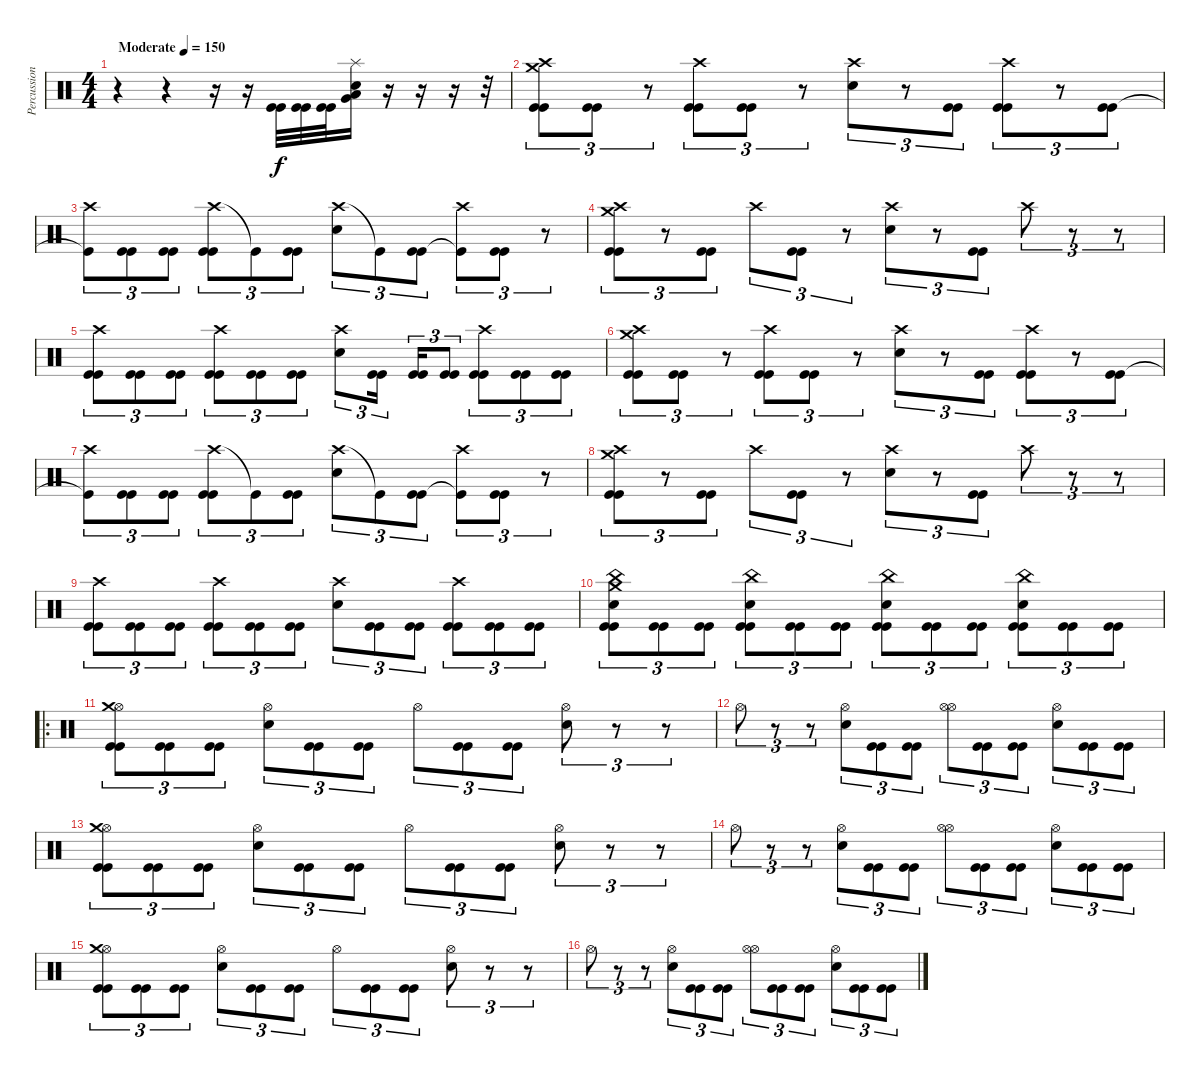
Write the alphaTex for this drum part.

\track ("Percussion" "Percussion") {instrument percussion}
\staff {score}
\articulation defaults
\ts (4 4)
\tempo (150 "Moderate")
\clef neutral
\ks c
r.4{dy f} r.4 r.16 r.16 ("Kick (hit)" "Kick (hit)").32 ("Kick (hit)" "Kick (hit)").32 ("Kick (hit)" "Kick (hit)").32 ("Very Low Tom (hit)" "Low Floor Tom (hit)" "Snare (hit) 2" "Splash (hit)").16 r.16 r.16 r.16 r.32 |
("Kick (hit)" "Kick (hit)" "Crash high (hit)" "Crash medium (hit)").8{tu (3 2)} ("Kick (hit)" "Kick (hit)").8{tu (3 2)} r.8{tu (3 2)} ("Kick (hit)" "Kick (hit)" "Crash high (hit)").8{tu (3 2)} ("Kick (hit)" "Kick (hit)").8{tu (3 2)} r.8{tu (3 2)} ("Snare (hit) 2" "Crash high (hit)").8{tu (3 2)} r.8{tu (3 2)} ("Kick (hit)" "Kick (hit)").8{tu (3 2)} ("Kick (hit)" "Kick (hit)" "Crash high (hit)").8{tu (3 2)} r.8{tu (3 2)} ("Kick (hit)" "Kick (hit)").8{tu (3 2)} |
("Crash high (hit)" "Kick (hit)"{t}).8{tu (3 2)} ("Kick (hit)" "Kick (hit)").8{tu (3 2)} ("Kick (hit)" "Kick (hit)").8{tu (3 2)} ("Crash high (hit)" "Kick (hit)" "Kick (hit)").8{tu (3 2)} "Kick (hit)"{t}.8{tu (3 2)} ("Kick (hit)" "Kick (hit)").8{tu (3 2)} ("Crash high (hit)" "Snare (hit) 2").8{tu (3 2)} "Kick (hit)"{t}.8{tu (3 2)} ("Kick (hit)" "Kick (hit)").8{tu (3 2)} ("Crash high (hit)" "Kick (hit)"{t}).8{tu (3 2)} ("Kick (hit)" "Kick (hit)").8{tu (3 2)} r.8{tu (3 2)} |
("Crash high (hit)" "Kick (hit)" "Crash medium (hit)" "Kick (hit)").8{tu (3 2)} r.8{tu (3 2)} ("Kick (hit)" "Kick (hit)").8{tu (3 2)} "Crash high (hit)".8{tu (3 2)} ("Kick (hit)" "Kick (hit)").8{tu (3 2)} r.8{tu (3 2)} ("Crash high (hit)" "Snare (hit) 2").8{tu (3 2)} r.8{tu (3 2)} ("Kick (hit)" "Kick (hit)").8{tu (3 2)} "Crash high (hit)".8{tu (3 2)} r.8{tu (3 2)} r.8{tu (3 2)} |
("Crash high (hit)" "Kick (hit)" "Kick (hit)").8{tu (3 2)} ("Kick (hit)" "Kick (hit)").8{tu (3 2)} ("Kick (hit)" "Kick (hit)").8{tu (3 2)} ("Crash high (hit)" "Kick (hit)" "Kick (hit)").8{tu (3 2)} ("Kick (hit)" "Kick (hit)").8{tu (3 2)} ("Kick (hit)" "Kick (hit)").8{tu (3 2)} ("Crash high (hit)" "Snare (hit) 2").8{tu (3 2)} ("Kick (hit)" "Kick (hit)").16{tu (3 2) beam splitsecondary} ("Kick (hit)" "Kick (hit)").16{tu (3 2)} ("Kick (hit)" "Kick (hit)").8{tu (3 2)} ("Crash high (hit)" "Kick (hit)" "Kick (hit)").8{tu (3 2)} ("Kick (hit)" "Kick (hit)").8{tu (3 2)} ("Kick (hit)" "Kick (hit)").8{tu (3 2)} |
("Kick (hit)" "Kick (hit)" "Crash high (hit)" "Crash medium (hit)").8{tu (3 2)} ("Kick (hit)" "Kick (hit)").8{tu (3 2)} r.8{tu (3 2)} ("Kick (hit)" "Kick (hit)" "Crash high (hit)").8{tu (3 2)} ("Kick (hit)" "Kick (hit)").8{tu (3 2)} r.8{tu (3 2)} ("Snare (hit) 2" "Crash high (hit)").8{tu (3 2)} r.8{tu (3 2)} ("Kick (hit)" "Kick (hit)").8{tu (3 2)} ("Kick (hit)" "Kick (hit)" "Crash high (hit)").8{tu (3 2)} r.8{tu (3 2)} ("Kick (hit)" "Kick (hit)").8{tu (3 2)} |
("Crash high (hit)" "Kick (hit)"{t}).8{tu (3 2)} ("Kick (hit)" "Kick (hit)").8{tu (3 2)} ("Kick (hit)" "Kick (hit)").8{tu (3 2)} ("Crash high (hit)" "Kick (hit)" "Kick (hit)").8{tu (3 2)} "Kick (hit)"{t}.8{tu (3 2)} ("Kick (hit)" "Kick (hit)").8{tu (3 2)} ("Crash high (hit)" "Snare (hit) 2").8{tu (3 2)} "Kick (hit)"{t}.8{tu (3 2)} ("Kick (hit)" "Kick (hit)").8{tu (3 2)} ("Crash high (hit)" "Kick (hit)"{t}).8{tu (3 2)} ("Kick (hit)" "Kick (hit)").8{tu (3 2)} r.8{tu (3 2)} |
("Crash high (hit)" "Kick (hit)" "Crash medium (hit)" "Kick (hit)").8{tu (3 2)} r.8{tu (3 2)} ("Kick (hit)" "Kick (hit)").8{tu (3 2)} "Crash high (hit)".8{tu (3 2)} ("Kick (hit)" "Kick (hit)").8{tu (3 2)} r.8{tu (3 2)} ("Crash high (hit)" "Snare (hit) 2").8{tu (3 2)} r.8{tu (3 2)} ("Kick (hit)" "Kick (hit)").8{tu (3 2)} "Crash high (hit)".8{tu (3 2)} r.8{tu (3 2)} r.8{tu (3 2)} |
("Crash high (hit)" "Kick (hit)" "Kick (hit)").8{tu (3 2)} ("Kick (hit)" "Kick (hit)").8{tu (3 2)} ("Kick (hit)" "Kick (hit)").8{tu (3 2)} ("Crash high (hit)" "Kick (hit)" "Kick (hit)").8{tu (3 2)} ("Kick (hit)" "Kick (hit)").8{tu (3 2)} ("Kick (hit)" "Kick (hit)").8{tu (3 2)} ("Crash high (hit)" "Snare (hit) 2").8{tu (3 2)} ("Kick (hit)" "Kick (hit)").8{tu (3 2)} ("Kick (hit)" "Kick (hit)").8{tu (3 2)} ("Crash high (hit)" "Kick (hit)" "Kick (hit)").8{tu (3 2)} ("Kick (hit)" "Kick (hit)").8{tu (3 2)} ("Kick (hit)" "Kick (hit)").8{tu (3 2)} |
("Kick (hit)" "Crash medium (hit)" "China (hit)" "Snare (hit) 2" "Kick (hit)").8{tu (3 2)} ("Kick (hit)" "Kick (hit)").8{tu (3 2)} ("Kick (hit)" "Kick (hit)").8{tu (3 2)} ("Kick (hit)" "China (hit)" "Snare (hit) 2" "Kick (hit)").8{tu (3 2)} ("Kick (hit)" "Kick (hit)").8{tu (3 2)} ("Kick (hit)" "Kick (hit)").8{tu (3 2)} ("Kick (hit)" "China (hit)" "Snare (hit) 2" "Kick (hit)").8{tu (3 2)} ("Kick (hit)" "Kick (hit)").8{tu (3 2)} ("Kick (hit)" "Kick (hit)").8{tu (3 2)} ("Kick (hit)" "China (hit)" "Snare (hit) 2" "Kick (hit)").8{tu (3 2)} ("Kick (hit)" "Kick (hit)").8{tu (3 2)} ("Kick (hit)" "Kick (hit)").8{tu (3 2)} |
\ro
("Hi-Hat (open)" "Kick (hit)" "Crash medium (hit)" "Kick (hit)").8{tu (3 2)} ("Kick (hit)" "Kick (hit)").8{tu (3 2)} ("Kick (hit)" "Kick (hit)").8{tu (3 2)} ("Hi-Hat (open)" "Snare (hit) 2").8{tu (3 2)} ("Kick (hit)" "Kick (hit)").8{tu (3 2)} ("Kick (hit)" "Kick (hit)").8{tu (3 2)} "Hi-Hat (open)".8{tu (3 2)} ("Kick (hit)" "Kick (hit)").8{tu (3 2)} ("Kick (hit)" "Kick (hit)").8{tu (3 2)} ("Hi-Hat (open)" "Snare (hit) 2").8{tu (3 2)} r.8{tu (3 2)} r.8{tu (3 2)} |
"Hi-Hat (open)".8{tu (3 2)} r.8{tu (3 2)} r.8{tu (3 2)} ("Snare (hit) 2" "Hi-Hat (open)").8{tu (3 2)} ("Kick (hit)" "Kick (hit)").8{tu (3 2)} ("Kick (hit)" "Kick (hit)").8{tu (3 2)} ("Hi-Hat (open)" "Hi-Hat (open)").8{tu (3 2)} ("Kick (hit)" "Kick (hit)").8{tu (3 2)} ("Kick (hit)" "Kick (hit)").8{tu (3 2)} ("Snare (hit) 2" "Hi-Hat (open)").8{tu (3 2)} ("Kick (hit)" "Kick (hit)").8{tu (3 2)} ("Kick (hit)" "Kick (hit)").8{tu (3 2)} |
("Hi-Hat (open)" "Kick (hit)" "Crash medium (hit)" "Kick (hit)").8{tu (3 2)} ("Kick (hit)" "Kick (hit)").8{tu (3 2)} ("Kick (hit)" "Kick (hit)").8{tu (3 2)} ("Hi-Hat (open)" "Snare (hit) 2").8{tu (3 2)} ("Kick (hit)" "Kick (hit)").8{tu (3 2)} ("Kick (hit)" "Kick (hit)").8{tu (3 2)} "Hi-Hat (open)".8{tu (3 2)} ("Kick (hit)" "Kick (hit)").8{tu (3 2)} ("Kick (hit)" "Kick (hit)").8{tu (3 2)} ("Hi-Hat (open)" "Snare (hit) 2").8{tu (3 2)} r.8{tu (3 2)} r.8{tu (3 2)} |
"Hi-Hat (open)".8{tu (3 2)} r.8{tu (3 2)} r.8{tu (3 2)} ("Snare (hit) 2" "Hi-Hat (open)").8{tu (3 2)} ("Kick (hit)" "Kick (hit)").8{tu (3 2)} ("Kick (hit)" "Kick (hit)").8{tu (3 2)} ("Hi-Hat (open)" "Hi-Hat (open)").8{tu (3 2)} ("Kick (hit)" "Kick (hit)").8{tu (3 2)} ("Kick (hit)" "Kick (hit)").8{tu (3 2)} ("Snare (hit) 2" "Hi-Hat (open)").8{tu (3 2)} ("Kick (hit)" "Kick (hit)").8{tu (3 2)} ("Kick (hit)" "Kick (hit)").8{tu (3 2)} |
("Hi-Hat (open)" "Kick (hit)" "Crash medium (hit)" "Kick (hit)").8{tu (3 2)} ("Kick (hit)" "Kick (hit)").8{tu (3 2)} ("Kick (hit)" "Kick (hit)").8{tu (3 2)} ("Hi-Hat (open)" "Snare (hit) 2").8{tu (3 2)} ("Kick (hit)" "Kick (hit)").8{tu (3 2)} ("Kick (hit)" "Kick (hit)").8{tu (3 2)} "Hi-Hat (open)".8{tu (3 2)} ("Kick (hit)" "Kick (hit)").8{tu (3 2)} ("Kick (hit)" "Kick (hit)").8{tu (3 2)} ("Hi-Hat (open)" "Snare (hit) 2").8{tu (3 2)} r.8{tu (3 2)} r.8{tu (3 2)} |
"Hi-Hat (open)".8{tu (3 2)} r.8{tu (3 2)} r.8{tu (3 2)} ("Snare (hit) 2" "Hi-Hat (open)").8{tu (3 2)} ("Kick (hit)" "Kick (hit)").8{tu (3 2)} ("Kick (hit)" "Kick (hit)").8{tu (3 2)} ("Hi-Hat (open)" "Hi-Hat (open)").8{tu (3 2)} ("Kick (hit)" "Kick (hit)").8{tu (3 2)} ("Kick (hit)" "Kick (hit)").8{tu (3 2)} ("Snare (hit) 2" "Hi-Hat (open)").8{tu (3 2)} ("Kick (hit)" "Kick (hit)").8{tu (3 2)} ("Kick (hit)" "Kick (hit)").8{tu (3 2)}
